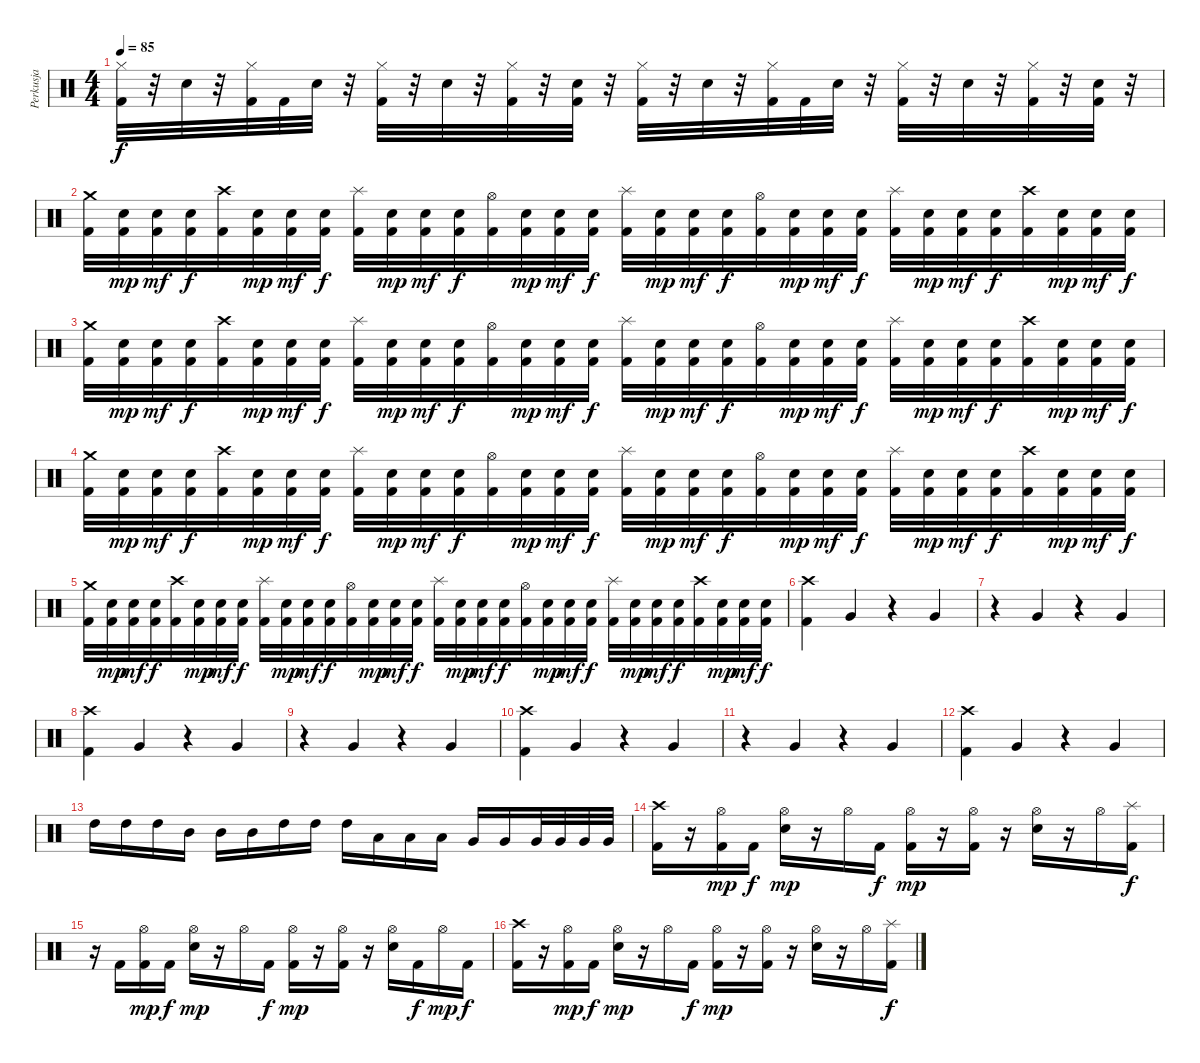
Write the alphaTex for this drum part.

\track ("Perkusja" "Perkusja") {instrument percussion}
\staff {score}
\articulation defaults
\ts (4 4)
\tempo 85
\clef neutral
\ks c
("Hi-Hat (closed)" "Kick (hit) 2").32{dy f} r.32 "Electric Snare (hit)".32 r.32 ("Hi-Hat (closed)" "Kick (hit) 2").32 "Kick (hit) 2".32 "Electric Snare (hit)".32 r.32 ("Hi-Hat (closed)" "Kick (hit) 2").32 r.32 "Electric Snare (hit)".32 r.32 ("Hi-Hat (closed)" "Kick (hit) 2").32 r.32 ("Electric Snare (hit)" "Kick (hit) 2").32 r.32 ("Hi-Hat (closed)" "Kick (hit) 2").32 r.32 "Electric Snare (hit)".32 r.32 ("Hi-Hat (closed)" "Kick (hit) 2").32 "Kick (hit) 2".32 "Electric Snare (hit)".32 r.32 ("Hi-Hat (closed)" "Kick (hit) 2").32 r.32 "Electric Snare (hit)".32 r.32 ("Hi-Hat (closed)" "Kick (hit) 2").32 r.32 ("Electric Snare (hit)" "Kick (hit) 2").32 r.32 |
("Crash medium (hit)" "Kick (hit) 2").32 ("Electric Snare (hit)" "Kick (hit) 2").32{dy mp} ("Electric Snare (hit)" "Kick (hit) 2").32{dy mf} ("Electric Snare (hit)" "Kick (hit) 2").32{dy f} ("Crash high (hit)" "Kick (hit) 2").32 ("Electric Snare (hit)" "Kick (hit) 2").32{dy mp} ("Electric Snare (hit)" "Kick (hit) 2").32{dy mf} ("Electric Snare (hit)" "Kick (hit) 2").32{dy f} ("Splash (hit)" "Kick (hit) 2").32 ("Electric Snare (hit)" "Kick (hit) 2").32{dy mp} ("Electric Snare (hit)" "Kick (hit) 2").32{dy mf} ("Electric Snare (hit)" "Kick (hit) 2").32{dy f} ("Hi-Hat (open)" "Kick (hit) 2").32 ("Electric Snare (hit)" "Kick (hit) 2").32{dy mp} ("Electric Snare (hit)" "Kick (hit) 2").32{dy mf} ("Electric Snare (hit)" "Kick (hit) 2").32{dy f} ("Splash (hit)" "Kick (hit) 2").32 ("Electric Snare (hit)" "Kick (hit) 2").32{dy mp} ("Electric Snare (hit)" "Kick (hit) 2").32{dy mf} ("Electric Snare (hit)" "Kick (hit) 2").32{dy f} ("Hi-Hat (open)" "Kick (hit) 2").32 ("Electric Snare (hit)" "Kick (hit) 2").32{dy mp} ("Electric Snare (hit)" "Kick (hit) 2").32{dy mf} ("Electric Snare (hit)" "Kick (hit) 2").32{dy f} ("Splash (hit)" "Kick (hit) 2").32 ("Electric Snare (hit)" "Kick (hit) 2").32{dy mp} ("Electric Snare (hit)" "Kick (hit) 2").32{dy mf} ("Electric Snare (hit)" "Kick (hit) 2").32{dy f} ("Crash high (hit)" "Kick (hit) 2").32 ("Electric Snare (hit)" "Kick (hit) 2").32{dy mp} ("Electric Snare (hit)" "Kick (hit) 2").32{dy mf} ("Electric Snare (hit)" "Kick (hit) 2").32{dy f} |
("Crash medium (hit)" "Kick (hit) 2").32 ("Electric Snare (hit)" "Kick (hit) 2").32{dy mp} ("Electric Snare (hit)" "Kick (hit) 2").32{dy mf} ("Electric Snare (hit)" "Kick (hit) 2").32{dy f} ("Crash high (hit)" "Kick (hit) 2").32 ("Electric Snare (hit)" "Kick (hit) 2").32{dy mp} ("Electric Snare (hit)" "Kick (hit) 2").32{dy mf} ("Electric Snare (hit)" "Kick (hit) 2").32{dy f} ("Splash (hit)" "Kick (hit) 2").32 ("Electric Snare (hit)" "Kick (hit) 2").32{dy mp} ("Electric Snare (hit)" "Kick (hit) 2").32{dy mf} ("Electric Snare (hit)" "Kick (hit) 2").32{dy f} ("Hi-Hat (open)" "Kick (hit) 2").32 ("Electric Snare (hit)" "Kick (hit) 2").32{dy mp} ("Electric Snare (hit)" "Kick (hit) 2").32{dy mf} ("Electric Snare (hit)" "Kick (hit) 2").32{dy f} ("Splash (hit)" "Kick (hit) 2").32 ("Electric Snare (hit)" "Kick (hit) 2").32{dy mp} ("Electric Snare (hit)" "Kick (hit) 2").32{dy mf} ("Electric Snare (hit)" "Kick (hit) 2").32{dy f} ("Hi-Hat (open)" "Kick (hit) 2").32 ("Electric Snare (hit)" "Kick (hit) 2").32{dy mp} ("Electric Snare (hit)" "Kick (hit) 2").32{dy mf} ("Electric Snare (hit)" "Kick (hit) 2").32{dy f} ("Splash (hit)" "Kick (hit) 2").32 ("Electric Snare (hit)" "Kick (hit) 2").32{dy mp} ("Electric Snare (hit)" "Kick (hit) 2").32{dy mf} ("Electric Snare (hit)" "Kick (hit) 2").32{dy f} ("Crash high (hit)" "Kick (hit) 2").32 ("Electric Snare (hit)" "Kick (hit) 2").32{dy mp} ("Electric Snare (hit)" "Kick (hit) 2").32{dy mf} ("Electric Snare (hit)" "Kick (hit) 2").32{dy f} |
("Crash medium (hit)" "Kick (hit) 2").32 ("Electric Snare (hit)" "Kick (hit) 2").32{dy mp} ("Electric Snare (hit)" "Kick (hit) 2").32{dy mf} ("Electric Snare (hit)" "Kick (hit) 2").32{dy f} ("Crash high (hit)" "Kick (hit) 2").32 ("Electric Snare (hit)" "Kick (hit) 2").32{dy mp} ("Electric Snare (hit)" "Kick (hit) 2").32{dy mf} ("Electric Snare (hit)" "Kick (hit) 2").32{dy f} ("Splash (hit)" "Kick (hit) 2").32 ("Electric Snare (hit)" "Kick (hit) 2").32{dy mp} ("Electric Snare (hit)" "Kick (hit) 2").32{dy mf} ("Electric Snare (hit)" "Kick (hit) 2").32{dy f} ("Hi-Hat (open)" "Kick (hit) 2").32 ("Electric Snare (hit)" "Kick (hit) 2").32{dy mp} ("Electric Snare (hit)" "Kick (hit) 2").32{dy mf} ("Electric Snare (hit)" "Kick (hit) 2").32{dy f} ("Splash (hit)" "Kick (hit) 2").32 ("Electric Snare (hit)" "Kick (hit) 2").32{dy mp} ("Electric Snare (hit)" "Kick (hit) 2").32{dy mf} ("Electric Snare (hit)" "Kick (hit) 2").32{dy f} ("Hi-Hat (open)" "Kick (hit) 2").32 ("Electric Snare (hit)" "Kick (hit) 2").32{dy mp} ("Electric Snare (hit)" "Kick (hit) 2").32{dy mf} ("Electric Snare (hit)" "Kick (hit) 2").32{dy f} ("Splash (hit)" "Kick (hit) 2").32 ("Electric Snare (hit)" "Kick (hit) 2").32{dy mp} ("Electric Snare (hit)" "Kick (hit) 2").32{dy mf} ("Electric Snare (hit)" "Kick (hit) 2").32{dy f} ("Crash high (hit)" "Kick (hit) 2").32 ("Electric Snare (hit)" "Kick (hit) 2").32{dy mp} ("Electric Snare (hit)" "Kick (hit) 2").32{dy mf} ("Electric Snare (hit)" "Kick (hit) 2").32{dy f} |
("Crash medium (hit)" "Kick (hit) 2").32 ("Electric Snare (hit)" "Kick (hit) 2").32{dy mp} ("Electric Snare (hit)" "Kick (hit) 2").32{dy mf} ("Electric Snare (hit)" "Kick (hit) 2").32{dy f} ("Crash high (hit)" "Kick (hit) 2").32 ("Electric Snare (hit)" "Kick (hit) 2").32{dy mp} ("Electric Snare (hit)" "Kick (hit) 2").32{dy mf} ("Electric Snare (hit)" "Kick (hit) 2").32{dy f} ("Splash (hit)" "Kick (hit) 2").32 ("Electric Snare (hit)" "Kick (hit) 2").32{dy mp} ("Electric Snare (hit)" "Kick (hit) 2").32{dy mf} ("Electric Snare (hit)" "Kick (hit) 2").32{dy f} ("Hi-Hat (open)" "Kick (hit) 2").32 ("Electric Snare (hit)" "Kick (hit) 2").32{dy mp} ("Electric Snare (hit)" "Kick (hit) 2").32{dy mf} ("Electric Snare (hit)" "Kick (hit) 2").32{dy f} ("Splash (hit)" "Kick (hit) 2").32 ("Electric Snare (hit)" "Kick (hit) 2").32{dy mp} ("Electric Snare (hit)" "Kick (hit) 2").32{dy mf} ("Electric Snare (hit)" "Kick (hit) 2").32{dy f} ("Hi-Hat (open)" "Kick (hit) 2").32 ("Electric Snare (hit)" "Kick (hit) 2").32{dy mp} ("Electric Snare (hit)" "Kick (hit) 2").32{dy mf} ("Electric Snare (hit)" "Kick (hit) 2").32{dy f} ("Splash (hit)" "Kick (hit) 2").32 ("Electric Snare (hit)" "Kick (hit) 2").32{dy mp} ("Electric Snare (hit)" "Kick (hit) 2").32{dy mf} ("Electric Snare (hit)" "Kick (hit) 2").32{dy f} ("Crash high (hit)" "Kick (hit) 2").32 ("Electric Snare (hit)" "Kick (hit) 2").32{dy mp} ("Electric Snare (hit)" "Kick (hit) 2").32{dy mf} ("Electric Snare (hit)" "Kick (hit) 2").32{dy f} |
("Crash high (hit)" "Kick (hit) 2").4 "Very Low Tom (hit)".4 r.4 "Very Low Tom (hit)".4 |
r.4 "Very Low Tom (hit)".4 r.4 "Very Low Tom (hit)".4 |
("Crash high (hit)" "Kick (hit) 2").4 "Very Low Tom (hit)".4 r.4 "Very Low Tom (hit)".4 |
r.4 "Very Low Tom (hit)".4 r.4 "Very Low Tom (hit)".4 |
("Crash high (hit)" "Kick (hit) 2").4 "Very Low Tom (hit)".4 r.4 "Very Low Tom (hit)".4 |
r.4 "Very Low Tom (hit)".4 r.4 "Very Low Tom (hit)".4 |
("Crash high (hit)" "Kick (hit) 2").4 "Very Low Tom (hit)".4 r.4 "Very Low Tom (hit)".4 |
"High Tom (hit)".16 "High Tom (hit)".16 "High Tom (hit)".16 "Mid Tom (hit)".16 "Mid Tom (hit)".16 "Mid Tom (hit)".16 "High Tom (hit)".16 "High Tom (hit)".16 "High Tom (hit)".16 "Low Tom (hit)".16 "Low Tom (hit)".16 "Low Tom (hit)".16 "Very Low Tom (hit)".16 "Very Low Tom (hit)".16 "Very Low Tom (hit)".32 "Very Low Tom (hit)".32 "Very Low Tom (hit)".32 "Very Low Tom (hit)".32 |
("Crash high (hit)" "Kick (hit) 2").16 r.16 ("Hi-Hat (open)" "Kick (hit) 2").16{dy mp} "Kick (hit) 2".16{dy f} ("Electric Snare (hit)" "Hi-Hat (open)").16{dy mp} r.16 "Hi-Hat (open)".16 "Kick (hit) 2".16{dy f} ("Hi-Hat (open)" "Kick (hit) 2").16{dy mp} r.16 ("Hi-Hat (open)" "Kick (hit) 2").16 r.16 ("Electric Snare (hit)" "Hi-Hat (open)").16 r.16 "Hi-Hat (open)".16 ("Splash (hit)" "Kick (hit) 2").16{dy f} |
r.16 "Kick (hit) 2".16 ("Hi-Hat (open)" "Kick (hit) 2").16{dy mp} "Kick (hit) 2".16{dy f} ("Electric Snare (hit)" "Hi-Hat (open)").16{dy mp} r.16 "Hi-Hat (open)".16 "Kick (hit) 2".16{dy f} ("Hi-Hat (open)" "Kick (hit) 2").16{dy mp} r.16 ("Hi-Hat (open)" "Kick (hit) 2").16 r.16 ("Electric Snare (hit)" "Hi-Hat (open)").16 "Kick (hit) 2".16{dy f} "Hi-Hat (open)".16{dy mp} "Kick (hit) 2".16{dy f} |
("Crash high (hit)" "Kick (hit) 2").16 r.16 ("Hi-Hat (open)" "Kick (hit) 2").16{dy mp} "Kick (hit) 2".16{dy f} ("Electric Snare (hit)" "Hi-Hat (open)").16{dy mp} r.16 "Hi-Hat (open)".16 "Kick (hit) 2".16{dy f} ("Hi-Hat (open)" "Kick (hit) 2").16{dy mp} r.16 ("Hi-Hat (open)" "Kick (hit) 2").16 r.16 ("Electric Snare (hit)" "Hi-Hat (open)").16 r.16 "Hi-Hat (open)".16 ("Splash (hit)" "Kick (hit) 2").16{dy f}
